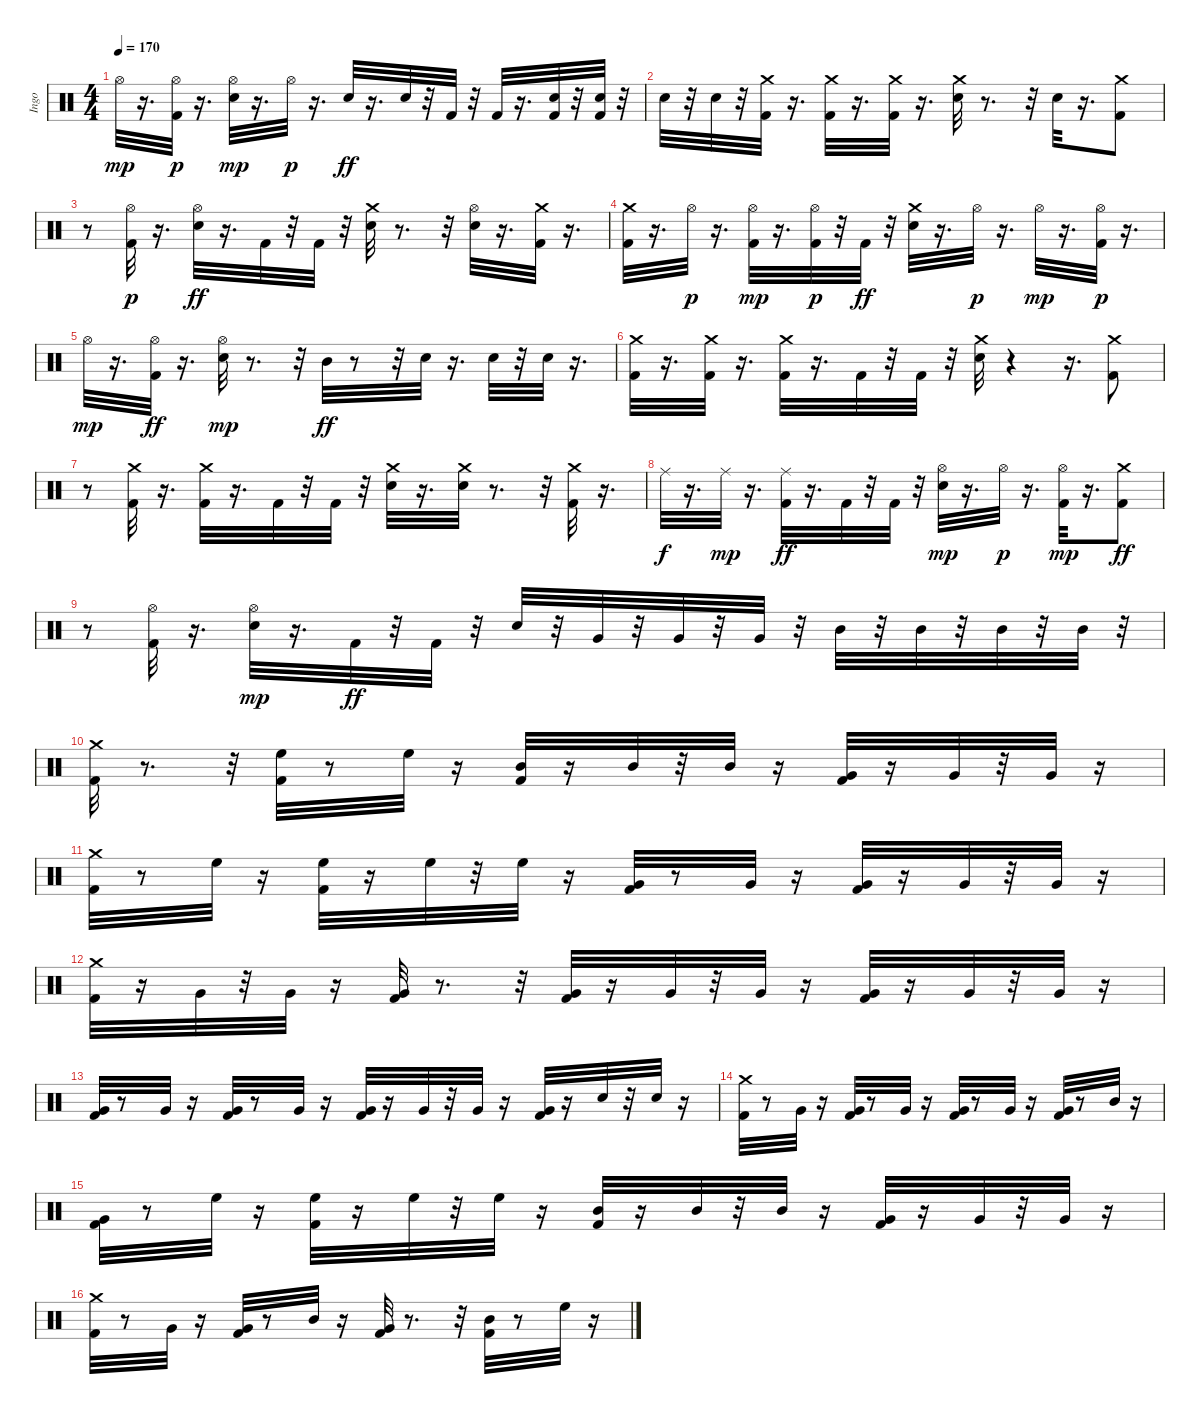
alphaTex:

\track ("Ingo" "Ingo") {instrument percussion}
\staff {score}
\articulation defaults
\ts (4 4)
\tempo 170
\clef neutral
\ks c "Hi-Hat (open)".32{dy mp}
r.16{d} ("Kick (hit) 2" "Hi-Hat (open)").32{dy p} r.16{d} ("Snare (hit) 2" "Hi-Hat (open)").32{dy mp} r.16{d} "Hi-Hat (open)".32{dy p} r.16{d} "Snare (hit) 2".32{dy ff} r.16{d} "Snare (hit) 2".32 r.32 "Kick (hit) 2".32 r.32 "Kick (hit) 2".32 r.16{d} ("Kick (hit) 2" "Snare (hit) 2").32 r.32 ("Kick (hit) 2" "Snare (hit) 2").32 r.32 |
"Snare (hit) 2".32 r.32 "Snare (hit) 2".32 r.32 ("Crash medium (hit)" "Kick (hit) 2").32 r.16{d} ("Crash medium (hit)" "Kick (hit) 2").32 r.16{d} ("Crash medium (hit)" "Kick (hit) 2").32 r.16{d} ("Crash medium (hit)" "Snare (hit) 2").32 r.8{d} r.32 "Snare (hit) 2".32 r.16{d} ("Crash medium (hit)" "Kick (hit) 2").8 |
r.8 ("Kick (hit) 2" "Hi-Hat (open)").32{dy p} r.16{d} ("Hi-Hat (open)" "Snare (hit) 2").32{dy ff} r.16{d} "Kick (hit) 2".32 r.32 "Kick (hit) 2".32 r.32 ("Crash medium (hit)" "Snare (hit) 2").32 r.8{d} r.32 ("Hi-Hat (open)" "Snare (hit) 2").32 r.16{d} ("Crash medium (hit)" "Kick (hit) 2").32 r.16{d} |
("Kick (hit) 2" "Crash medium (hit)").32 r.16{d} "Hi-Hat (open)".32{dy p} r.16{d} ("Kick (hit) 2" "Hi-Hat (open)").32{dy mp} r.16{d} ("Kick (hit) 2" "Hi-Hat (open)").32{dy p} r.32 "Kick (hit) 2".32{dy ff} r.32 ("Snare (hit) 2" "Crash medium (hit)").32 r.16{d} "Hi-Hat (open)".32{dy p} r.16{d} "Hi-Hat (open)".32{dy mp} r.16{d} ("Kick (hit) 2" "Hi-Hat (open)").32{dy p} r.16{d} |
"Hi-Hat (open)".32{dy mp} r.16{d} ("Hi-Hat (open)" "Kick (hit) 2").32{dy ff} r.16{d} ("Snare (hit) 2" "Hi-Hat (open)").32{dy mp} r.8{d} r.32 "Mid Tom (hit)".32{dy ff} r.8 r.32 "Snare (hit) 2".32 r.16{d} "Snare (hit) 2".32 r.32 "Snare (hit) 2".32 r.16{d} |
("Crash medium (hit)" "Kick (hit) 2").32 r.16{d} ("Crash medium (hit)" "Kick (hit) 2").32 r.16{d} ("Crash medium (hit)" "Kick (hit) 2").32 r.16{d} "Kick (hit) 2".32 r.32 "Kick (hit) 2".32 r.32 ("Snare (hit) 2" "Crash medium (hit)").32 r.4 r.16{d} ("Crash medium (hit)" "Kick (hit) 2").8 |
r.8 ("Kick (hit) 2" "Crash medium (hit)").32 r.16{d} ("Kick (hit) 2" "Crash medium (hit)").32 r.16{d} "Kick (hit) 2".32 r.32 "Kick (hit) 2".32 r.32 ("Snare (hit) 2" "Crash medium (hit)").32 r.16{d} ("Snare (hit) 2" "Crash medium (hit)").32 r.8{d} r.32 ("Kick (hit) 2" "Crash medium (hit)").32 r.16{d} |
"Ride (middle)".32{dy f} r.16{d} "Ride (middle)".32{dy mp} r.16{d} ("Kick (hit) 2" "Ride (middle)").32{dy ff} r.16{d} "Kick (hit) 2".32 r.32 "Kick (hit) 2".32 r.32 ("Snare (hit) 2" "Hi-Hat (open)").32{dy mp} r.16{d} "Hi-Hat (open)".32{dy p} r.16{d} ("Kick (hit) 2" "Hi-Hat (open)").32{dy mp} r.16{d} ("Kick (hit) 2" "Crash medium (hit)").8{dy ff} |
r.8 ("Hi-Hat (open)" "Kick (hit) 2").32 r.16{d} ("Snare (hit) 2" "Hi-Hat (open)").32{dy mp} r.16{d} "Kick (hit) 2".32{dy ff} r.32 "Kick (hit) 2".32 r.32 "Snare (hit) 2".32 r.32 "Very Low Tom (hit)".32 r.32 "Very Low Tom (hit)".32 r.32 "Very Low Tom (hit)".32 r.32 "Mid Tom (hit)".32 r.32 "Mid Tom (hit)".32 r.32 "Mid Tom (hit)".32 r.32 "Mid Tom (hit)".32 r.32 |
("Crash medium (hit)" "Kick (hit) 2").32 r.8{d} r.32 ("High Floor Tom (hit)" "Kick (hit) 2").32 r.8 "High Floor Tom (hit)".32 r.16 ("Mid Tom (hit)" "Kick (hit) 2").32 r.16 "Mid Tom (hit)".32 r.32 "Mid Tom (hit)".32 r.16 ("Very Low Tom (hit)" "Kick (hit) 2").32 r.16 "Very Low Tom (hit)".32 r.32 "Very Low Tom (hit)".32 r.16 |
("Crash medium (hit)" "Kick (hit) 2").32 r.8 "High Floor Tom (hit)".32 r.16 ("High Floor Tom (hit)" "Kick (hit) 2").32 r.16 "High Floor Tom (hit)".32 r.32 "High Floor Tom (hit)".32 r.16 ("Very Low Tom (hit)" "Kick (hit) 2").32 r.8 "Very Low Tom (hit)".32 r.16 ("Very Low Tom (hit)" "Kick (hit) 2").32 r.16 "Very Low Tom (hit)".32 r.32 "Very Low Tom (hit)".32 r.16 |
("Crash medium (hit)" "Kick (hit) 2").32 r.16 "Very Low Tom (hit)".32 r.32 "Very Low Tom (hit)".32 r.16 ("Very Low Tom (hit)" "Kick (hit) 2").32 r.8{d} r.32 ("Very Low Tom (hit)" "Kick (hit) 2").32 r.16 "Very Low Tom (hit)".32 r.32 "Very Low Tom (hit)".32 r.16 ("Very Low Tom (hit)" "Kick (hit) 2").32 r.16 "Very Low Tom (hit)".32 r.32 "Very Low Tom (hit)".32 r.16 |
("Very Low Tom (hit)" "Kick (hit) 2").32 r.8 "Very Low Tom (hit)".32 r.16 ("Very Low Tom (hit)" "Kick (hit) 2").32 r.8 "Very Low Tom (hit)".32 r.16 ("Very Low Tom (hit)" "Kick (hit) 2").32 r.16 "Very Low Tom (hit)".32 r.32 "Very Low Tom (hit)".32 r.16 ("Very Low Tom (hit)" "Kick (hit) 2").32 r.16 "Snare (hit)".32 r.32 "Snare (hit)".32 r.16 |
("Crash medium (hit)" "Kick (hit) 2").32 r.8 "Very Low Tom (hit)".32 r.16 ("Very Low Tom (hit)" "Kick (hit) 2").32 r.8 "Very Low Tom (hit)".32 r.16 ("Very Low Tom (hit)" "Kick (hit) 2").32 r.8 "Very Low Tom (hit)".32 r.16 ("Very Low Tom (hit)" "Kick (hit) 2").32 r.8 "Mid Tom (hit)".32 r.16 |
("Very Low Tom (hit)" "Kick (hit) 2").32 r.8 "High Floor Tom (hit)".32 r.16 ("High Floor Tom (hit)" "Kick (hit) 2").32 r.16 "High Floor Tom (hit)".32 r.32 "High Floor Tom (hit)".32 r.16 ("Kick (hit) 2" "Mid Tom (hit)").32 r.16 "Mid Tom (hit)".32 r.32 "Mid Tom (hit)".32 r.16 ("Kick (hit) 2" "Very Low Tom (hit)").32 r.16 "Very Low Tom (hit)".32 r.32 "Very Low Tom (hit)".32 r.16 |
("Crash medium (hit)" "Kick (hit) 2").32 r.8 "Very Low Tom (hit)".32 r.16 ("Very Low Tom (hit)" "Kick (hit) 2").32 r.8 "Mid Tom (hit)".32 r.16 ("Very Low Tom (hit)" "Kick (hit) 2").32 r.8{d} r.32 ("Mid Tom (hit)" "Kick (hit) 2").32 r.8 "High Floor Tom (hit)".32 r.16
